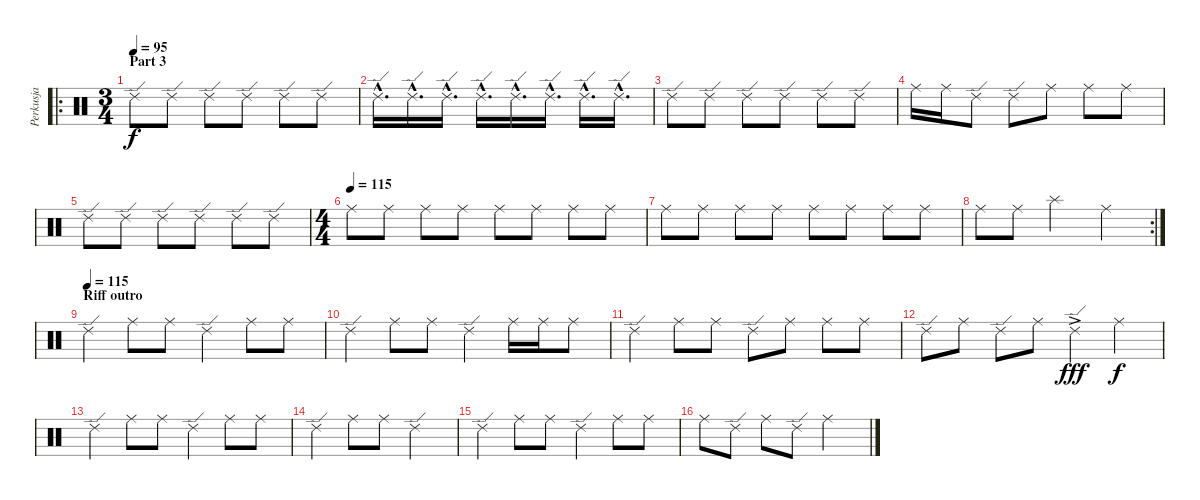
\track ("Perkusja" "Perkusja") {instrument percussion}
\staff {score}
\articulation defaults
\ro
\ts (3 4)
\section ("" "Part 3")
\tempo 95
\clef neutral
\ks c "Ride (edge) 2".8{dy f} "Ride (edge) 2".8 "Ride (edge) 2".8 "Ride (edge) 2".8 "Ride (edge) 2".8 "Ride (edge) 2".8
|
"Ride (edge) 2"{hac}.16{d} "Ride (edge) 2"{hac}.16{d} "Ride (edge) 2"{hac}.16{d} "Ride (edge) 2"{hac}.16{d} "Ride (edge) 2"{hac}.16{d} "Ride (edge) 2"{hac}.16{d} "Ride (edge) 2"{hac}.16{d} "Ride (edge) 2"{hac}.16{d} |
"Ride (edge) 2".8 "Ride (edge) 2".8 "Ride (edge) 2".8 "Ride (edge) 2".8 "Ride (edge) 2".8 "Ride (edge) 2".8 |
"Ride (middle)".16 "Ride (middle)".16 "Ride (edge) 2".8 "Ride (edge) 2".8 "Ride (middle)".8 "Ride (middle)".8 "Ride (middle)".8 |
"Ride (edge) 2".8 "Ride (edge) 2".8 "Ride (edge) 2".8 "Ride (edge) 2".8 "Ride (edge) 2".8 "Ride (edge) 2".8 |
\ts (4 4)
\tempo (115)
"Ride (middle)".8 "Ride (middle)".8 "Ride (middle)".8 "Ride (middle)".8 "Ride (middle)".8 "Ride (middle)".8 "Ride (middle)".8 "Ride (middle)".8 |
"Ride (middle)".8 "Ride (middle)".8 "Ride (middle)".8 "Ride (middle)".8 "Ride (middle)".8 "Ride (middle)".8 "Ride (middle)".8 "Ride (middle)".8 |
\rc 2 "Ride (middle)".8 "Ride (middle)".8 "Splash (hit)".2 "Ride (middle)".4
|
\section ("" "Riff outro")
\tempo (115)
"Ride (edge) 2".4 "Ride (middle)".8 "Ride (middle)".8 "Ride (edge) 2".4 "Ride (middle)".8 "Ride (middle)".8 |
"Ride (edge) 2".4 "Ride (middle)".8 "Ride (middle)".8 "Ride (edge) 2".4 "Ride (middle)".16 "Ride (middle)".16 "Ride (middle)".8 |
"Ride (edge) 2".4 "Ride (middle)".8 "Ride (middle)".8 "Ride (edge) 2".8 "Ride (middle)".8 "Ride (middle)".8 "Ride (middle)".8 |
"Ride (edge) 2".8 "Ride (middle)".8 "Ride (edge) 2".8 "Ride (middle)".8 "Ride (edge) 2"{ac}.4{dy fff} "Ride (middle)".4{dy f} |
"Ride (edge) 2".4 "Ride (middle)".8 "Ride (middle)".8 "Ride (edge) 2".4 "Ride (middle)".8 "Ride (middle)".8 |
"Ride (edge) 2".4 "Ride (middle)".8 "Ride (middle)".8 "Ride (edge) 2".2 |
"Ride (edge) 2".4 "Ride (middle)".8 "Ride (middle)".8 "Ride (edge) 2".4 "Ride (middle)".8 "Ride (middle)".8 |
"Ride (middle)".8 "Ride (edge) 2".8 "Ride (middle)".8 "Ride (edge) 2".8 "Ride (middle)".2
